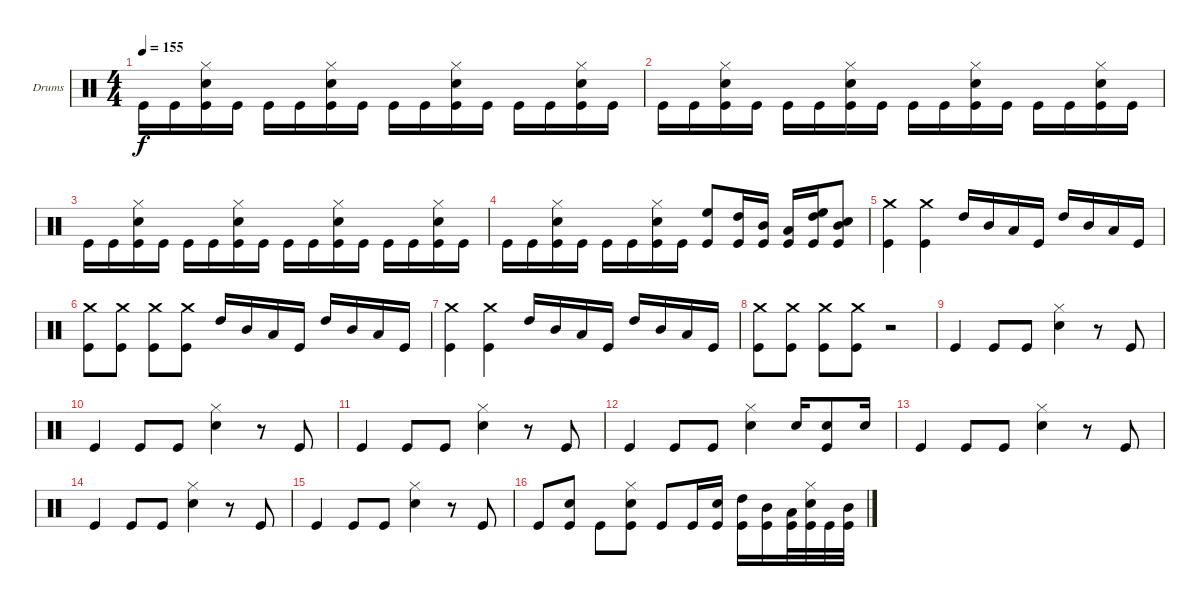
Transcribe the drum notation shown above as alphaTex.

\defaultSystemsLayout 4
\bracketExtendMode groupsimilarinstruments
\firstSystemTrackNameOrientation horizontal
\otherSystemsTrackNameOrientation horizontal
\track ("Drumkit" "Drums") {instrument percussion}
\staff {score}
\articulation defaults
\ts (4 4)
\tempo 155
\clef neutral
\ks c "Kick (hit)".16{dy f} "Kick (hit)".16
("Kick (hit)" "Snare (hit) 2" "Hi-Hat (closed)").16 "Kick (hit)".16 "Kick (hit)".16 "Kick (hit)".16 ("Kick (hit)" "Snare (hit) 2" "Hi-Hat (closed)").16 "Kick (hit)".16 "Kick (hit)".16 "Kick (hit)".16 ("Kick (hit)" "Snare (hit) 2" "Hi-Hat (closed)").16 "Kick (hit)".16 "Kick (hit)".16 "Kick (hit)".16 ("Kick (hit)" "Snare (hit) 2" "Hi-Hat (closed)").16 "Kick (hit)".16 |
"Kick (hit)".16 "Kick (hit)".16 ("Kick (hit)" "Snare (hit) 2" "Hi-Hat (closed)").16 "Kick (hit)".16 "Kick (hit)".16 "Kick (hit)".16 ("Kick (hit)" "Snare (hit) 2" "Hi-Hat (closed)").16 "Kick (hit)".16 "Kick (hit)".16 "Kick (hit)".16 ("Kick (hit)" "Snare (hit) 2" "Hi-Hat (closed)").16 "Kick (hit)".16 "Kick (hit)".16 "Kick (hit)".16 ("Kick (hit)" "Snare (hit) 2" "Hi-Hat (closed)").16 "Kick (hit)".16 |
"Kick (hit)".16 "Kick (hit)".16 ("Kick (hit)" "Snare (hit) 2" "Hi-Hat (closed)").16 "Kick (hit)".16 "Kick (hit)".16 "Kick (hit)".16 ("Kick (hit)" "Snare (hit) 2" "Hi-Hat (closed)").16 "Kick (hit)".16 "Kick (hit)".16 "Kick (hit)".16 ("Kick (hit)" "Snare (hit) 2" "Hi-Hat (closed)").16 "Kick (hit)".16 "Kick (hit)".16 "Kick (hit)".16 ("Kick (hit)" "Snare (hit) 2" "Hi-Hat (closed)").16 "Kick (hit)".16 |
"Kick (hit)".16 "Kick (hit)".16 ("Kick (hit)" "Snare (hit) 2" "Hi-Hat (closed)").16 "Kick (hit)".16 "Kick (hit)".16 "Kick (hit)".16 ("Kick (hit)" "Snare (hit) 2" "Hi-Hat (closed)").16 "Kick (hit)".16 ("Kick (hit)" "High Floor Tom (hit)").8 ("Kick (hit)" "High Tom (hit)").16 ("Kick (hit)" "Mid Tom (hit)").16 ("Kick (hit)" "Low Tom (hit)").16 ("Kick (hit)" "High Tom (hit)" "High Floor Tom (hit)").16 ("Kick (hit)" "Snare (hit) 2" "Mid Tom (hit)").8 |
("Kick (hit)" "Crash medium (hit)").4 ("Kick (hit)" "Crash medium (hit)").4 "High Tom (hit)".16 "Mid Tom (hit)".16 "Low Tom (hit)".16 "Kick (hit)".16 "High Tom (hit)".16 "Mid Tom (hit)".16 "Low Tom (hit)".16 "Kick (hit)".16 |
("Kick (hit)" "Crash medium (hit)").8 ("Kick (hit)" "Crash medium (hit)").8 ("Kick (hit)" "Crash medium (hit)").8 ("Kick (hit)" "Crash medium (hit)").8 "High Tom (hit)".16 "Mid Tom (hit)".16 "Low Tom (hit)".16 "Kick (hit)".16 "High Tom (hit)".16 "Mid Tom (hit)".16 "Low Tom (hit)".16 "Kick (hit)".16 |
("Kick (hit)" "Crash medium (hit)").4 ("Kick (hit)" "Crash medium (hit)").4 "High Tom (hit)".16 "Mid Tom (hit)".16 "Low Tom (hit)".16 "Kick (hit)".16 "High Tom (hit)".16 "Mid Tom (hit)".16 "Low Tom (hit)".16 "Kick (hit)".16 |
("Kick (hit)" "Crash medium (hit)").8 ("Kick (hit)" "Crash medium (hit)").8 ("Kick (hit)" "Crash medium (hit)").8 ("Kick (hit)" "Crash medium (hit)").8 r.2 |
"Kick (hit)".4 "Kick (hit)".8 "Kick (hit)".8 ("Snare (hit) 2" "Hi-Hat (closed)").4 r.8 "Kick (hit)".8 |
"Kick (hit)".4 "Kick (hit)".8 "Kick (hit)".8 ("Snare (hit) 2" "Hi-Hat (closed)").4 r.8 "Kick (hit)".8 |
"Kick (hit)".4 "Kick (hit)".8 "Kick (hit)".8 ("Snare (hit) 2" "Hi-Hat (closed)").4 r.8 "Kick (hit)".8 |
"Kick (hit)".4 "Kick (hit)".8 "Kick (hit)".8 ("Snare (hit) 2" "Hi-Hat (closed)").4 "Snare (hit) 2".16 ("Kick (hit)" "Snare (hit) 2").8 "Snare (hit) 2".16 |
"Kick (hit)".4 "Kick (hit)".8 "Kick (hit)".8 ("Snare (hit) 2" "Hi-Hat (closed)").4 r.8 "Kick (hit)".8 |
"Kick (hit)".4 "Kick (hit)".8 "Kick (hit)".8 ("Snare (hit) 2" "Hi-Hat (closed)").4 r.8 "Kick (hit)".8 |
"Kick (hit)".4 "Kick (hit)".8 "Kick (hit)".8 ("Snare (hit) 2" "Hi-Hat (closed)").4 r.8 "Kick (hit)".8 |
"Kick (hit)".8 ("Kick (hit)" "Snare (hit) 2").8 "Kick (hit)".8 ("Kick (hit)" "Snare (hit) 2" "Hi-Hat (closed)").8 "Kick (hit)".8 "Kick (hit)".16 ("Kick (hit)" "Snare (hit) 2").16 ("Kick (hit)" "High Tom (hit)").16 ("Kick (hit)" "Mid Tom (hit)").16 ("Kick (hit)" "Low Tom (hit)").32 ("Kick (hit)" "Snare (hit) 2" "Hi-Hat (closed)").32 "Kick (hit)".32 ("Kick (hit)" "Mid Tom (hit)").32
